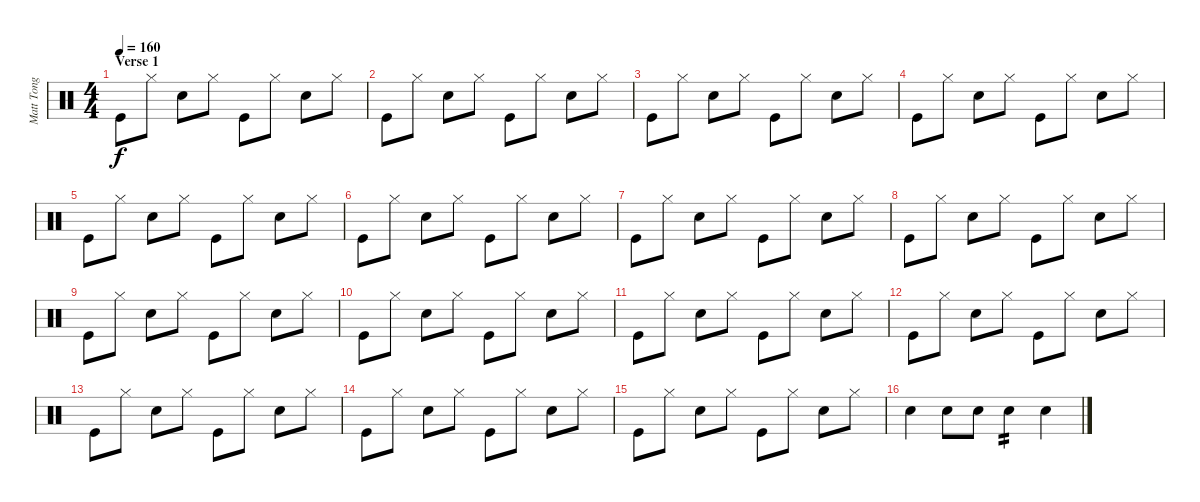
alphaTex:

\track ("Matt Tong" "Matt Tong") {instrument percussion}
\staff {score}
\articulation defaults
\ts (4 4)
\section ("" "Verse 1")
\tempo 160
\clef neutral
\ks c "Kick (hit)".8{dy f} "Hi-Hat (closed)".8 "Electric Snare (hit)".8 "Hi-Hat (closed)".8 "Kick (hit)".8 "Hi-Hat (closed)".8 "Electric Snare (hit)".8 "Hi-Hat (closed)".8
|
"Kick (hit)".8 "Hi-Hat (closed)".8 "Electric Snare (hit)".8 "Hi-Hat (closed)".8 "Kick (hit)".8 "Hi-Hat (closed)".8 "Electric Snare (hit)".8 "Hi-Hat (closed)".8 |
"Kick (hit)".8 "Hi-Hat (closed)".8 "Electric Snare (hit)".8 "Hi-Hat (closed)".8 "Kick (hit)".8 "Hi-Hat (closed)".8 "Electric Snare (hit)".8 "Hi-Hat (closed)".8 |
"Kick (hit)".8 "Hi-Hat (closed)".8 "Electric Snare (hit)".8 "Hi-Hat (closed)".8 "Kick (hit)".8 "Hi-Hat (closed)".8 "Electric Snare (hit)".8 "Hi-Hat (closed)".8 |
"Kick (hit)".8 "Hi-Hat (closed)".8 "Electric Snare (hit)".8 "Hi-Hat (closed)".8 "Kick (hit)".8 "Hi-Hat (closed)".8 "Electric Snare (hit)".8 "Hi-Hat (closed)".8 |
"Kick (hit)".8 "Hi-Hat (closed)".8 "Electric Snare (hit)".8 "Hi-Hat (closed)".8 "Kick (hit)".8 "Hi-Hat (closed)".8 "Electric Snare (hit)".8 "Hi-Hat (closed)".8 |
"Kick (hit)".8 "Hi-Hat (closed)".8 "Electric Snare (hit)".8 "Hi-Hat (closed)".8 "Kick (hit)".8 "Hi-Hat (closed)".8 "Electric Snare (hit)".8 "Hi-Hat (closed)".8 |
"Kick (hit)".8 "Hi-Hat (closed)".8 "Electric Snare (hit)".8 "Hi-Hat (closed)".8 "Kick (hit)".8 "Hi-Hat (closed)".8 "Electric Snare (hit)".8 "Hi-Hat (closed)".8 |
"Kick (hit)".8 "Hi-Hat (closed)".8 "Electric Snare (hit)".8 "Hi-Hat (closed)".8 "Kick (hit)".8 "Hi-Hat (closed)".8 "Electric Snare (hit)".8 "Hi-Hat (closed)".8 |
"Kick (hit)".8 "Hi-Hat (closed)".8 "Electric Snare (hit)".8 "Hi-Hat (closed)".8 "Kick (hit)".8 "Hi-Hat (closed)".8 "Electric Snare (hit)".8 "Hi-Hat (closed)".8 |
"Kick (hit)".8 "Hi-Hat (closed)".8 "Electric Snare (hit)".8 "Hi-Hat (closed)".8 "Kick (hit)".8 "Hi-Hat (closed)".8 "Electric Snare (hit)".8 "Hi-Hat (closed)".8 |
"Kick (hit)".8 "Hi-Hat (closed)".8 "Electric Snare (hit)".8 "Hi-Hat (closed)".8 "Kick (hit)".8 "Hi-Hat (closed)".8 "Electric Snare (hit)".8 "Hi-Hat (closed)".8 |
"Kick (hit)".8 "Hi-Hat (closed)".8 "Electric Snare (hit)".8 "Hi-Hat (closed)".8 "Kick (hit)".8 "Hi-Hat (closed)".8 "Electric Snare (hit)".8 "Hi-Hat (closed)".8 |
"Kick (hit)".8 "Hi-Hat (closed)".8 "Electric Snare (hit)".8 "Hi-Hat (closed)".8 "Kick (hit)".8 "Hi-Hat (closed)".8 "Electric Snare (hit)".8 "Hi-Hat (closed)".8 |
"Kick (hit)".8 "Hi-Hat (closed)".8 "Electric Snare (hit)".8 "Hi-Hat (closed)".8 "Kick (hit)".8 "Hi-Hat (closed)".8 "Electric Snare (hit)".8 "Hi-Hat (closed)".8 |
"Electric Snare (hit)".4 "Electric Snare (hit)".8 "Electric Snare (hit)".8 "Electric Snare (hit)".4{tp 2} "Electric Snare (hit)".4
